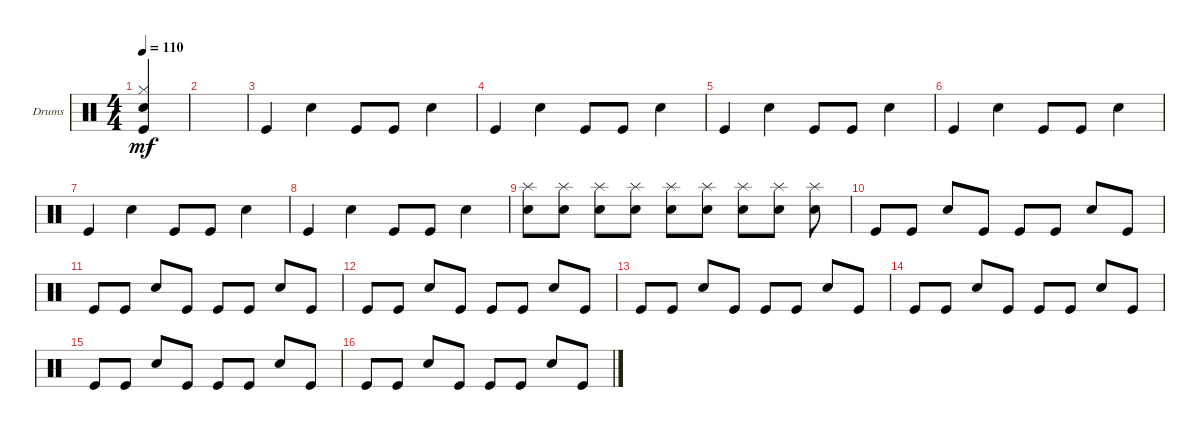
\defaultSystemsLayout 4
\bracketExtendMode groupsimilarinstruments
\firstSystemTrackNameOrientation horizontal
\otherSystemsTrackNameOrientation horizontal
\track ("Tico Torres" "Drums") {instrument percussion}
\staff {score}
\articulation defaults
\ts (4 4)
\tempo 110
\clef neutral
\ks c
("Kick (hit)" "Hi-Hat (closed)" "Snare (hit) 2").4{dy mf} |
|
"Kick (hit)".4 "Snare (hit) 2".4 "Kick (hit)".8 "Kick (hit)".8 "Snare (hit) 2".4 |
"Kick (hit)".4 "Snare (hit) 2".4 "Kick (hit)".8 "Kick (hit)".8 "Snare (hit) 2".4 |
"Kick (hit)".4 "Snare (hit) 2".4 "Kick (hit)".8 "Kick (hit)".8 "Snare (hit) 2".4 |
"Kick (hit)".4 "Snare (hit) 2".4 "Kick (hit)".8 "Kick (hit)".8 "Snare (hit) 2".4 |
"Kick (hit)".4 "Snare (hit) 2".4 "Kick (hit)".8 "Kick (hit)".8 "Snare (hit) 2".4 |
"Kick (hit)".4 "Snare (hit) 2".4 "Kick (hit)".8 "Kick (hit)".8 "Snare (hit) 2".4 |
("Snare (hit) 2" "Splash (hit)").8 ("Snare (hit) 2" "Splash (hit)").8 ("Snare (hit) 2" "Splash (hit)").8 ("Snare (hit) 2" "Splash (hit)").8 ("Snare (hit) 2" "Splash (hit)").8 ("Snare (hit) 2" "Splash (hit)").8 ("Snare (hit) 2" "Splash (hit)").8 ("Snare (hit) 2" "Splash (hit)").8 ("Snare (hit) 2" "Splash (hit)").8 |
"Kick (hit)".8 "Kick (hit)".8 "Snare (hit) 2".8 "Kick (hit)".8 "Kick (hit)".8 "Kick (hit)".8 "Snare (hit) 2".8 "Kick (hit)".8 |
"Kick (hit)".8 "Kick (hit)".8 "Snare (hit) 2".8 "Kick (hit)".8 "Kick (hit)".8 "Kick (hit)".8 "Snare (hit) 2".8 "Kick (hit)".8 |
"Kick (hit)".8 "Kick (hit)".8 "Snare (hit) 2".8 "Kick (hit)".8 "Kick (hit)".8 "Kick (hit)".8 "Snare (hit) 2".8 "Kick (hit)".8 |
"Kick (hit)".8 "Kick (hit)".8 "Snare (hit) 2".8 "Kick (hit)".8 "Kick (hit)".8 "Kick (hit)".8 "Snare (hit) 2".8 "Kick (hit)".8 |
"Kick (hit)".8 "Kick (hit)".8 "Snare (hit) 2".8 "Kick (hit)".8 "Kick (hit)".8 "Kick (hit)".8 "Snare (hit) 2".8 "Kick (hit)".8 |
"Kick (hit)".8 "Kick (hit)".8 "Snare (hit) 2".8 "Kick (hit)".8 "Kick (hit)".8 "Kick (hit)".8 "Snare (hit) 2".8 "Kick (hit)".8 |
"Kick (hit)".8 "Kick (hit)".8 "Snare (hit) 2".8 "Kick (hit)".8 "Kick (hit)".8 "Kick (hit)".8 "Snare (hit) 2".8 "Kick (hit)".8
